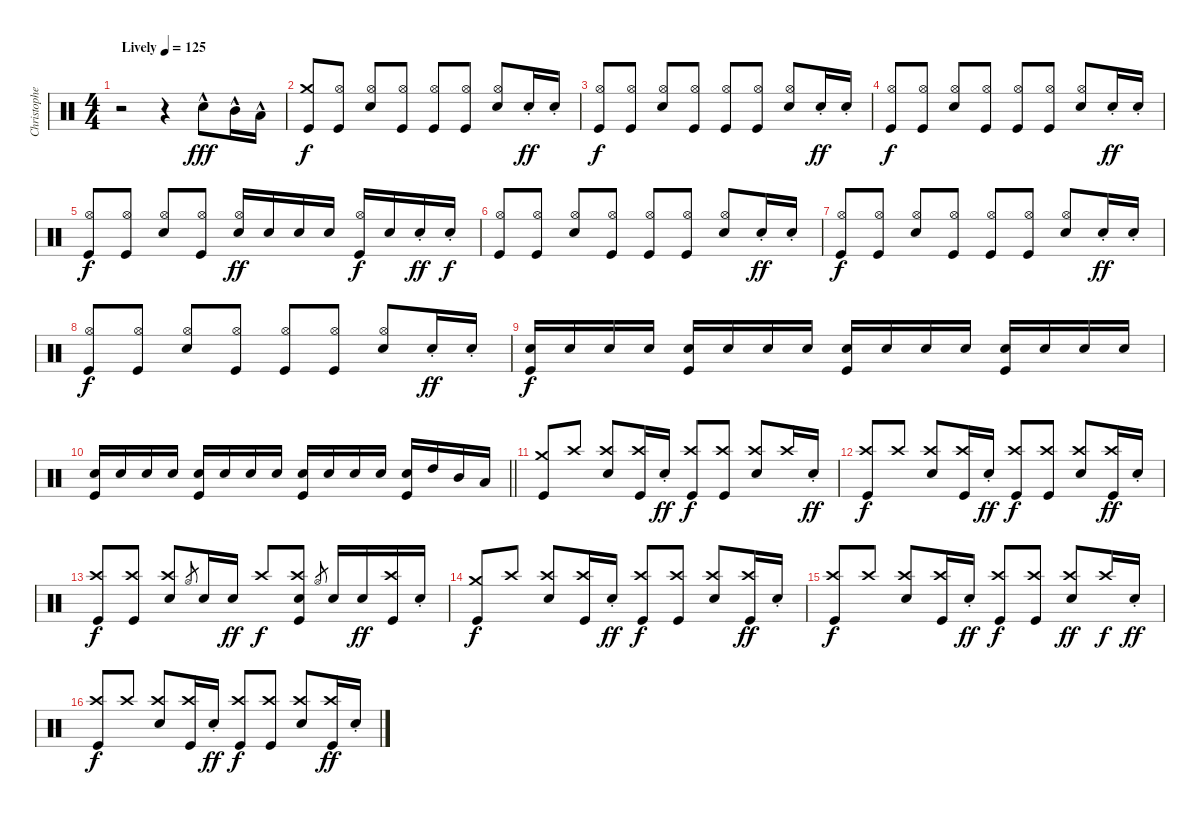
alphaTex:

\track ("Christopher Guanlao - Drums" "Christophe") {instrument percussion}
\staff {score}
\articulation defaults
\ts (4 4)
\tempo (125 "Lively")
\clef neutral
\ks c
r.2{dy fff beam Up} r.4 "Electric Snare (hit)"{hac}.8{beam Down} "Mid Tom (hit)"{hac}.16{beam Down} "Low Floor Tom (hit)"{hac}.16{beam Down} |
("Crash medium (hit)" "Kick (hit)").8{dy f beam Up} ("Hi-Hat (open)" "Kick (hit)").8{beam Up} ("Hi-Hat (open)" "Electric Snare (hit)").8{beam Up} ("Hi-Hat (open)" "Kick (hit)").8{beam Up} ("Hi-Hat (open)" "Kick (hit)").8{beam Up} ("Hi-Hat (open)" "Kick (hit)").8{beam Up} ("Hi-Hat (open)" "Electric Snare (hit)").8{beam Up} "Electric Snare (hit)"{st}.16{dy ff beam Up} "Electric Snare (hit)"{st}.16{beam Up} |
("Hi-Hat (open)" "Kick (hit)").8{dy f beam Up} ("Hi-Hat (open)" "Kick (hit)").8{beam Up} ("Hi-Hat (open)" "Electric Snare (hit)").8{beam Up} ("Hi-Hat (open)" "Kick (hit)").8{beam Up} ("Hi-Hat (open)" "Kick (hit)").8{beam Up} ("Hi-Hat (open)" "Kick (hit)").8{beam Up} ("Hi-Hat (open)" "Electric Snare (hit)").8{beam Up} "Electric Snare (hit)"{st}.16{dy ff beam Up} "Electric Snare (hit)"{st}.16{beam Up} |
("Hi-Hat (open)" "Kick (hit)").8{dy f beam Up} ("Hi-Hat (open)" "Kick (hit)").8{beam Up} ("Hi-Hat (open)" "Electric Snare (hit)").8{beam Up} ("Hi-Hat (open)" "Kick (hit)").8{beam Up} ("Hi-Hat (open)" "Kick (hit)").8{beam Up} ("Hi-Hat (open)" "Kick (hit)").8{beam Up} ("Hi-Hat (open)" "Electric Snare (hit)").8{beam Up} "Electric Snare (hit)"{st}.16{dy ff beam Up} "Electric Snare (hit)"{st}.16{beam Up} |
("Hi-Hat (open)" "Kick (hit)").8{dy f beam Up} ("Hi-Hat (open)" "Kick (hit)").8{beam Up} ("Hi-Hat (open)" "Electric Snare (hit)").8{beam Up} ("Hi-Hat (open)" "Kick (hit)").8{beam Up} ("Hi-Hat (open)" "Electric Snare (hit)").16{dy ff beam Up} "Electric Snare (hit)".16{beam Up} "Electric Snare (hit)".16{beam Up} "Electric Snare (hit)".16{beam Up} ("Hi-Hat (open)" "Kick (hit)").16{dy f beam Up} "Electric Snare (hit)".16{beam Up} "Electric Snare (hit)"{st}.16{dy ff beam Up} "Electric Snare (hit)"{st}.16{dy f} |
("Hi-Hat (open)" "Kick (hit)").8{beam Up} ("Hi-Hat (open)" "Kick (hit)").8{beam Up} ("Hi-Hat (open)" "Electric Snare (hit)").8{beam Up} ("Hi-Hat (open)" "Kick (hit)").8{beam Up} ("Hi-Hat (open)" "Kick (hit)").8{beam Up} ("Hi-Hat (open)" "Kick (hit)").8{beam Up} ("Hi-Hat (open)" "Electric Snare (hit)").8{beam Up} "Electric Snare (hit)"{st}.16{dy ff beam Up} "Electric Snare (hit)"{st}.16{beam Up} |
("Hi-Hat (open)" "Kick (hit)").8{dy f beam Up} ("Hi-Hat (open)" "Kick (hit)").8{beam Up} ("Hi-Hat (open)" "Electric Snare (hit)").8{beam Up} ("Hi-Hat (open)" "Kick (hit)").8{beam Up} ("Hi-Hat (open)" "Kick (hit)").8{beam Up} ("Hi-Hat (open)" "Kick (hit)").8{beam Up} ("Hi-Hat (open)" "Electric Snare (hit)").8{beam Up} "Electric Snare (hit)"{st}.16{dy ff beam Up} "Electric Snare (hit)"{st}.16{beam Up} |
("Hi-Hat (open)" "Kick (hit)").8{dy f beam Up} ("Hi-Hat (open)" "Kick (hit)").8{beam Up} ("Hi-Hat (open)" "Electric Snare (hit)").8{beam Up} ("Hi-Hat (open)" "Kick (hit)").8{beam Up} ("Hi-Hat (open)" "Kick (hit)").8{beam Up} ("Hi-Hat (open)" "Kick (hit)").8{beam Up} ("Hi-Hat (open)" "Electric Snare (hit)").8{beam Up} "Electric Snare (hit)"{st}.16{dy ff beam Up} "Electric Snare (hit)"{st}.16{beam Up} |
("Electric Snare (hit)" "Kick (hit)").16{dy f beam Up} "Electric Snare (hit)".16{beam Up} "Electric Snare (hit)".16{beam Up} "Electric Snare (hit)".16{beam Up} ("Electric Snare (hit)" "Kick (hit)").16{beam Up} "Electric Snare (hit)".16{beam Up} "Electric Snare (hit)".16{beam Up} "Electric Snare (hit)".16{beam Up} ("Electric Snare (hit)" "Kick (hit)").16{beam Up} "Electric Snare (hit)".16{beam Up} "Electric Snare (hit)".16{beam Up} "Electric Snare (hit)".16{beam Up} ("Electric Snare (hit)" "Kick (hit)").16{beam Up} "Electric Snare (hit)".16{beam Up} "Electric Snare (hit)".16{beam Up} "Electric Snare (hit)".16{beam Up} |
\barLineRight lightlight
("Electric Snare (hit)" "Kick (hit)").16{beam Up} "Electric Snare (hit)".16{beam Up} "Electric Snare (hit)".16{beam Up} "Electric Snare (hit)".16{beam Up} ("Electric Snare (hit)" "Kick (hit)").16{beam Up} "Electric Snare (hit)".16{beam Up} "Electric Snare (hit)".16{beam Up} "Electric Snare (hit)".16{beam Up} ("Electric Snare (hit)" "Kick (hit)").16{beam Up} "Electric Snare (hit)".16{beam Up} "Electric Snare (hit)".16{beam Up} "Electric Snare (hit)".16{beam Up} ("Electric Snare (hit)" "Kick (hit)").16{beam Up} "High Tom (hit)".16{beam Up} "Mid Tom (hit)".16{beam Up} "Low Floor Tom (hit)".16{beam Up} |
("Crash medium (hit)" "Kick (hit)").8{beam Up} "Crash high (hit)".8{beam Up} ("Crash high (hit)" "Electric Snare (hit)").8{beam Up} ("Crash high (hit)" "Kick (hit)").16{beam Up} "Electric Snare (hit)"{st}.16{dy ff beam Up} ("Crash high (hit)" "Kick (hit)").8{dy f beam Up} ("Crash high (hit)" "Kick (hit)").8{beam Up} ("Crash high (hit)" "Electric Snare (hit)").8{beam Up} "Crash high (hit)".16{beam Up} "Electric Snare (hit)"{st}.16{dy ff beam Up} |
("Crash high (hit)" "Kick (hit)").8{dy f beam Up} "Crash high (hit)".8{beam Up} ("Crash high (hit)" "Electric Snare (hit)").8{beam Up} ("Crash high (hit)" "Kick (hit)").16{beam Up} "Electric Snare (hit)"{st}.16{dy ff beam Up} ("Crash high (hit)" "Kick (hit)").8{dy f beam Up} ("Crash high (hit)" "Kick (hit)").8{beam Up} ("Crash high (hit)" "Electric Snare (hit)").8{beam Up} ("Crash high (hit)" "Kick (hit)").16{dy ff beam Up} "Electric Snare (hit)"{st}.16{beam Up} |
("Crash high (hit)" "Kick (hit)").8{dy f beam Up} ("Crash high (hit)" "Kick (hit)").8{beam Up} ("Crash high (hit)" "Electric Snare (hit)").8{beam Up} "Hi-Hat (open)".8{gr} "Electric Snare (hit)".16{beam Up} "Electric Snare (hit)".16{dy ff beam Up} "Crash high (hit)".8{dy f beam Up} ("Crash high (hit)" "Electric Snare (hit)" "Kick (hit)").8{beam Up} "Hi-Hat (open)".8{gr} "Electric Snare (hit)".16{beam Up} "Electric Snare (hit)".16{dy ff beam Up} ("Crash high (hit)" "Kick (hit)").16{beam Up} "Electric Snare (hit)"{st}.16{beam Up} |
("Crash medium (hit)" "Kick (hit)").8{dy f beam Up} "Crash high (hit)".8{beam Up} ("Crash high (hit)" "Electric Snare (hit)").8{beam Up} ("Crash high (hit)" "Kick (hit)").16{beam Up} "Electric Snare (hit)"{st}.16{dy ff beam Up} ("Crash high (hit)" "Kick (hit)").8{dy f beam Up} ("Crash high (hit)" "Kick (hit)").8{beam Up} ("Crash high (hit)" "Electric Snare (hit)").8{beam Up} ("Crash high (hit)" "Kick (hit)").16{dy ff beam Up} "Electric Snare (hit)"{st}.16{beam Up} |
("Crash high (hit)" "Kick (hit)").8{dy f beam Up} "Crash high (hit)".8{beam Up} ("Crash high (hit)" "Electric Snare (hit)").8{beam Up} ("Crash high (hit)" "Kick (hit)").16{beam Up} "Electric Snare (hit)"{st}.16{dy ff beam Up} ("Crash high (hit)" "Kick (hit)").8{dy f beam Up} ("Crash high (hit)" "Kick (hit)").8{beam Up} ("Crash high (hit)" "Electric Snare (hit)").8{dy ff beam Up} "Crash high (hit)".16{dy f beam Up} "Electric Snare (hit)"{st}.16{dy ff beam Up} |
("Crash high (hit)" "Kick (hit)").8{dy f beam Up} "Crash high (hit)".8{beam Up} ("Crash high (hit)" "Electric Snare (hit)").8{beam Up} ("Crash high (hit)" "Kick (hit)").16{beam Up} "Electric Snare (hit)"{st}.16{dy ff beam Up} ("Crash high (hit)" "Kick (hit)").8{dy f beam Up} ("Crash high (hit)" "Kick (hit)").8{beam Up} ("Crash high (hit)" "Electric Snare (hit)").8{beam Up} ("Crash high (hit)" "Kick (hit)").16{dy ff beam Up} "Electric Snare (hit)"{st}.16{beam Up}
